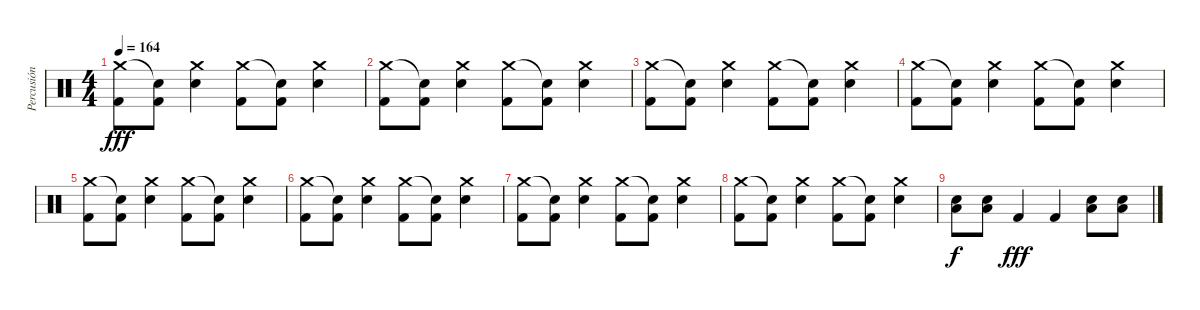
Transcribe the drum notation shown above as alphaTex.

\track ("Percusión" "Percusión") {instrument percussion}
\staff {score}
\articulation defaults
\ts (4 4)
\tempo 164
\clef neutral
\ks c
("Crash medium (hit)" "Kick (hit) 2").8{dy fff} ("Snare (hit)"{t} "Kick (hit) 2").8 ("Crash medium (hit)" "Snare (hit) 2").4 ("Crash medium (hit)" "Kick (hit) 2").8 ("Snare (hit)"{t} "Kick (hit) 2").8 ("Crash medium (hit)" "Snare (hit) 2").4 |
("Crash medium (hit)" "Kick (hit) 2").8 ("Snare (hit)"{t} "Kick (hit) 2").8 ("Crash medium (hit)" "Snare (hit) 2").4 ("Crash medium (hit)" "Kick (hit) 2").8 ("Snare (hit)"{t} "Kick (hit) 2").8 ("Crash medium (hit)" "Snare (hit) 2").4 |
("Crash medium (hit)" "Kick (hit) 2").8 ("Snare (hit)"{t} "Kick (hit) 2").8 ("Crash medium (hit)" "Snare (hit) 2").4 ("Crash medium (hit)" "Kick (hit) 2").8 ("Snare (hit)"{t} "Kick (hit) 2").8 ("Crash medium (hit)" "Snare (hit) 2").4 |
("Crash medium (hit)" "Kick (hit) 2").8 ("Snare (hit)"{t} "Kick (hit) 2").8 ("Crash medium (hit)" "Snare (hit) 2").4 ("Crash medium (hit)" "Kick (hit) 2").8 ("Snare (hit)"{t} "Kick (hit) 2").8 ("Crash medium (hit)" "Snare (hit) 2").4 |
("Crash medium (hit)" "Kick (hit) 2").8 ("Snare (hit)"{t} "Kick (hit) 2").8 ("Crash medium (hit)" "Snare (hit) 2").4 ("Crash medium (hit)" "Kick (hit) 2").8 ("Snare (hit)"{t} "Kick (hit) 2").8 ("Crash medium (hit)" "Snare (hit) 2").4 |
("Crash medium (hit)" "Kick (hit) 2").8 ("Snare (hit)"{t} "Kick (hit) 2").8 ("Crash medium (hit)" "Snare (hit) 2").4 ("Crash medium (hit)" "Kick (hit) 2").8 ("Snare (hit)"{t} "Kick (hit) 2").8 ("Crash medium (hit)" "Snare (hit) 2").4 |
("Crash medium (hit)" "Kick (hit) 2").8 ("Snare (hit)"{t} "Kick (hit) 2").8 ("Crash medium (hit)" "Snare (hit) 2").4 ("Crash medium (hit)" "Kick (hit) 2").8 ("Snare (hit)"{t} "Kick (hit) 2").8 ("Crash medium (hit)" "Snare (hit) 2").4 |
("Crash medium (hit)" "Kick (hit) 2").8 ("Snare (hit)"{t} "Kick (hit) 2").8 ("Crash medium (hit)" "Snare (hit) 2").4 ("Crash medium (hit)" "Kick (hit) 2").8 ("Snare (hit)"{t} "Kick (hit) 2").8 ("Crash medium (hit)" "Snare (hit) 2").4 |
("Electric Snare (hit)" "Low Floor Tom (hit)").8{dy f} ("Electric Snare (hit)" "Low Floor Tom (hit)").8 "Kick (hit) 2".4{dy fff} "Kick (hit) 2".4 ("Electric Snare (hit)" "Low Floor Tom (hit)").8 ("Electric Snare (hit)" "Low Floor Tom (hit)").8
